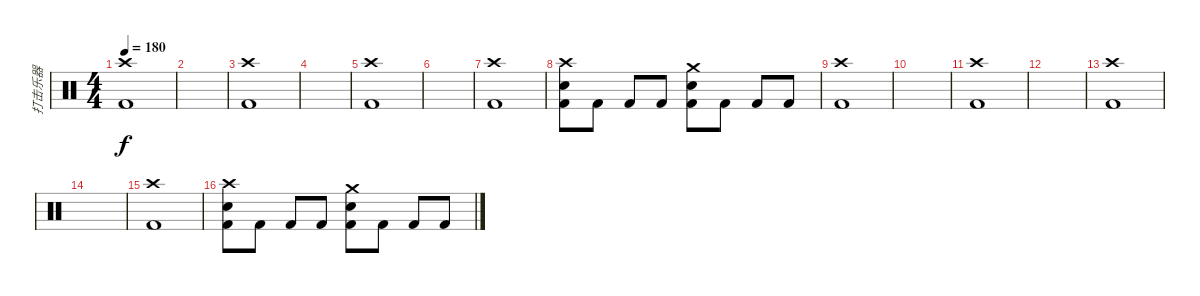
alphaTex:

\track ("打击乐器" "打击乐器") {instrument percussion}
\staff {score}
\articulation defaults
\ts (4 4)
\tempo 180
\clef neutral
\ks c
("Crash high (hit)" "Kick (hit) 2").1{dy f} |
|
("Crash high (hit)" "Kick (hit) 2").1 |
|
("Crash high (hit)" "Kick (hit) 2").1 |
|
("Crash high (hit)" "Kick (hit) 2").1 |
("Crash high (hit)" "Electric Snare (hit)" "Kick (hit) 2").8 "Kick (hit) 2".8 "Kick (hit) 2".8 "Kick (hit) 2".8 ("Crash medium (hit)" "Electric Snare (hit)" "Kick (hit) 2").8 "Kick (hit) 2".8 "Kick (hit) 2".8 "Kick (hit) 2".8 |
("Crash high (hit)" "Kick (hit) 2").1 |
|
("Crash high (hit)" "Kick (hit) 2").1 |
|
("Crash high (hit)" "Kick (hit) 2").1 |
|
("Crash high (hit)" "Kick (hit) 2").1 |
("Crash high (hit)" "Electric Snare (hit)" "Kick (hit) 2").8 "Kick (hit) 2".8 "Kick (hit) 2".8 "Kick (hit) 2".8 ("Crash medium (hit)" "Electric Snare (hit)" "Kick (hit) 2").8 "Kick (hit) 2".8 "Kick (hit) 2".8 "Kick (hit) 2".8
